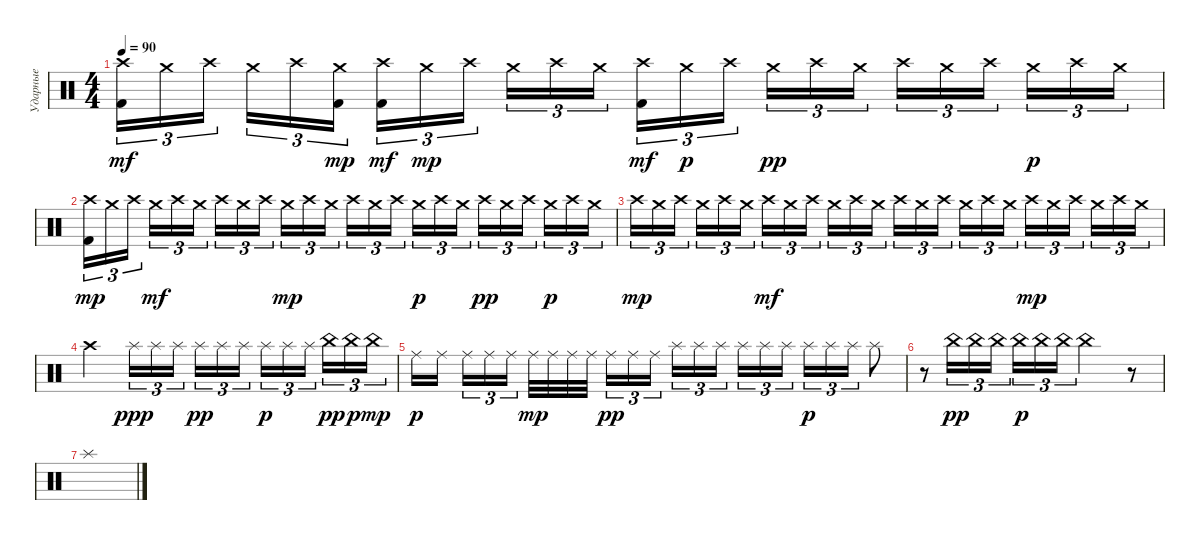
\track ("Ударные" "Ударные") {instrument percussion}
\staff {score}
\articulation defaults
\ts (4 4)
\tempo 90
\clef neutral
\ks c
("Crash high (hit)" "Kick (hit) 2").16{tu (3 2) dy mf} "Crash medium (hit)".16{tu (3 2)} "Crash high (hit)".16{tu (3 2) beam splitsecondary} "Crash medium (hit)".16{tu (3 2)} "Crash high (hit)".16{tu (3 2)} ("Crash medium (hit)" "Kick (hit) 2").16{tu (3 2) dy mp} ("Crash high (hit)" "Kick (hit) 2").16{tu (3 2) dy mf} "Crash medium (hit)".16{tu (3 2) dy mp} "Crash high (hit)".16{tu (3 2) beam splitsecondary} "Crash medium (hit)".16{tu (3 2)} "Crash high (hit)".16{tu (3 2)} "Crash medium (hit)".16{tu (3 2)} ("Crash high (hit)" "Kick (hit) 2").16{tu (3 2) dy mf} "Crash medium (hit)".16{tu (3 2) dy p} "Crash high (hit)".16{tu (3 2) beam splitsecondary} "Crash medium (hit)".16{tu (3 2) dy pp} "Crash high (hit)".16{tu (3 2)} "Crash medium (hit)".16{tu (3 2)} "Crash high (hit)".16{tu (3 2)} "Crash medium (hit)".16{tu (3 2)} "Crash high (hit)".16{tu (3 2) beam splitsecondary} "Crash medium (hit)".16{tu (3 2) dy p} "Crash high (hit)".16{tu (3 2)} "Crash medium (hit)".16{tu (3 2)} |
("Crash high (hit)" "Kick (hit) 2").16{tu (3 2) dy mp} "Crash medium (hit)".16{tu (3 2)} "Crash high (hit)".16{tu (3 2) beam splitsecondary} "Crash medium (hit)".16{tu (3 2) dy mf} "Crash high (hit)".16{tu (3 2)} "Crash medium (hit)".16{tu (3 2)} "Crash high (hit)".16{tu (3 2)} "Crash medium (hit)".16{tu (3 2)} "Crash high (hit)".16{tu (3 2) beam splitsecondary} "Crash medium (hit)".16{tu (3 2) dy mp} "Crash high (hit)".16{tu (3 2)} "Crash medium (hit)".16{tu (3 2)} "Crash high (hit)".16{tu (3 2)} "Crash medium (hit)".16{tu (3 2)} "Crash high (hit)".16{tu (3 2) beam splitsecondary} "Crash medium (hit)".16{tu (3 2) dy p} "Crash high (hit)".16{tu (3 2)} "Crash medium (hit)".16{tu (3 2)} "Crash high (hit)".16{tu (3 2) dy pp} "Crash medium (hit)".16{tu (3 2)} "Crash high (hit)".16{tu (3 2) beam splitsecondary} "Crash medium (hit)".16{tu (3 2) dy p} "Crash high (hit)".16{tu (3 2)} "Crash medium (hit)".16{tu (3 2)} |
"Crash high (hit)".16{tu (3 2) dy mp} "Crash medium (hit)".16{tu (3 2)} "Crash high (hit)".16{tu (3 2) beam splitsecondary} "Crash medium (hit)".16{tu (3 2)} "Crash high (hit)".16{tu (3 2)} "Crash medium (hit)".16{tu (3 2)} "Crash high (hit)".16{tu (3 2) dy mf} "Crash medium (hit)".16{tu (3 2)} "Crash high (hit)".16{tu (3 2) beam splitsecondary} "Crash medium (hit)".16{tu (3 2)} "Crash high (hit)".16{tu (3 2)} "Crash medium (hit)".16{tu (3 2)} "Crash high (hit)".16{tu (3 2)} "Crash medium (hit)".16{tu (3 2)} "Crash high (hit)".16{tu (3 2) beam splitsecondary} "Crash medium (hit)".16{tu (3 2)} "Crash high (hit)".16{tu (3 2)} "Crash medium (hit)".16{tu (3 2)} "Crash high (hit)".16{tu (3 2) dy mp} "Crash medium (hit)".16{tu (3 2)} "Crash high (hit)".16{tu (3 2) beam splitsecondary} "Crash medium (hit)".16{tu (3 2)} "Crash high (hit)".16{tu (3 2)} "Crash medium (hit)".16{tu (3 2)} |
"Crash high (hit)".2 "Splash (hit)".16{tu (3 2) dy ppp} "Splash (hit)".16{tu (3 2)} "Splash (hit)".16{tu (3 2) beam splitsecondary} "Splash (hit)".16{tu (3 2) dy pp} "Splash (hit)".16{tu (3 2)} "Splash (hit)".16{tu (3 2)} "Splash (hit)".16{tu (3 2) dy p} "Splash (hit)".16{tu (3 2)} "Splash (hit)".16{tu (3 2) beam splitsecondary} "China (hit)".16{tu (3 2) dy pp} "China (hit)".16{tu (3 2) dy p} "China (hit)".16{tu (3 2) dy mp} |
"Ride (middle)".16{dy p} "Ride (middle)".16{beam splitsecondary} "Ride (middle)".16{tu (3 2)} "Ride (middle)".16{tu (3 2)} "Ride (middle)".16{tu (3 2)} "Ride (middle)".32{dy mp} "Ride (middle)".32 "Ride (middle)".32 "Ride (middle)".32{beam splitsecondary} "Ride (middle)".16{tu (3 2) dy pp} "Ride (middle)".16{tu (3 2)} "Ride (middle)".16{tu (3 2)} "Splash (hit)".16{tu (3 2)} "Splash (hit)".16{tu (3 2)} "Splash (hit)".16{tu (3 2) beam splitsecondary} "Splash (hit)".16{tu (3 2)} "Splash (hit)".16{tu (3 2)} "Splash (hit)".16{tu (3 2)} "Splash (hit)".16{tu (3 2) dy p} "Splash (hit)".16{tu (3 2)} "Splash (hit)".16{tu (3 2)} "Splash (hit)".8 |
r.8 "China (hit)".16{tu (3 2) dy pp} "China (hit)".16{tu (3 2)} "China (hit)".16{tu (3 2)} "China (hit)".16{tu (3 2) dy p} "China (hit)".16{tu (3 2)} "China (hit)".16{tu (3 2)} "China (hit)".2 r.8 |
"Splash (hit)".1
